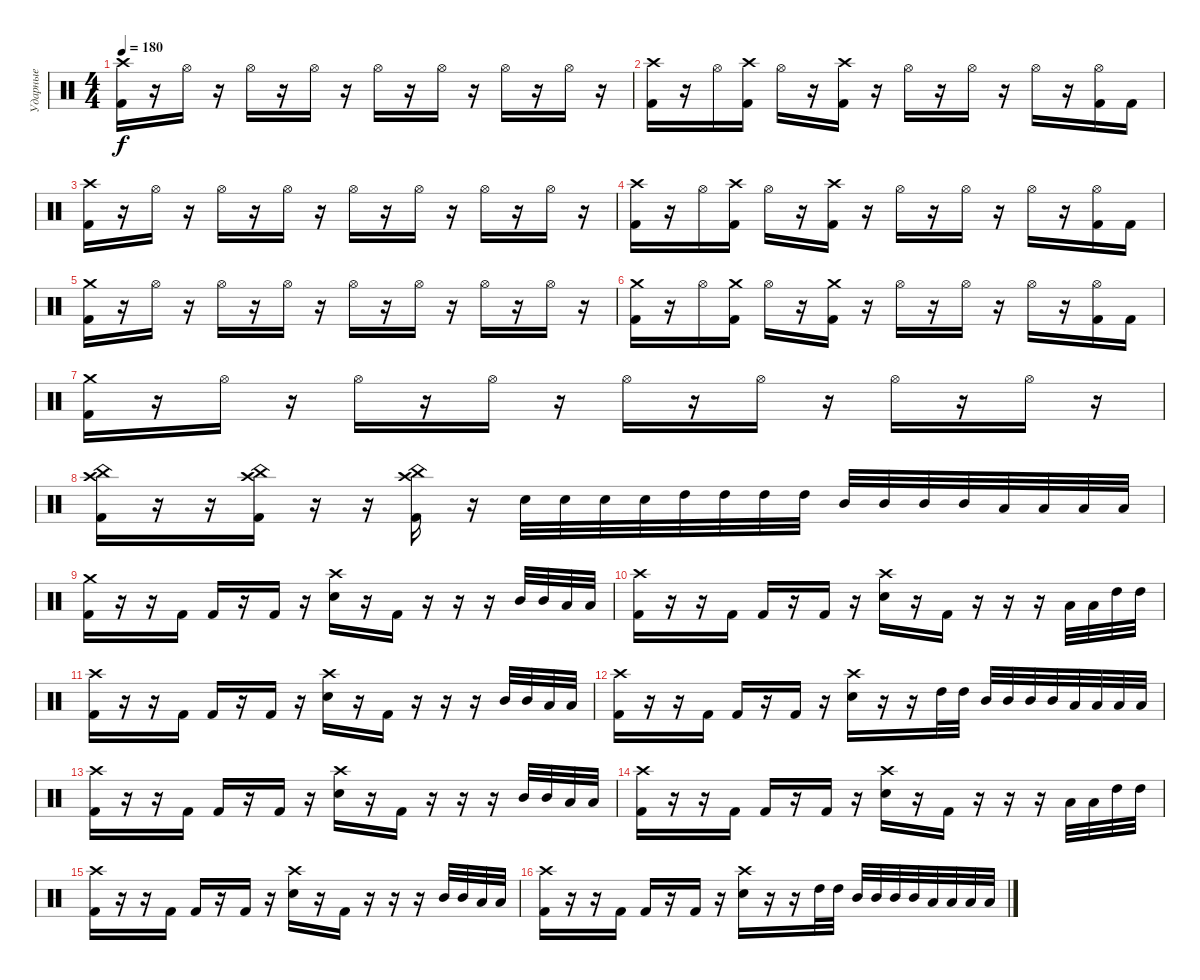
\track ("Ударные" "Ударные") {instrument percussion}
\staff {score}
\articulation defaults
\ts (4 4)
\tempo 180
\clef neutral
\ks c
("Crash high (hit)" "Kick (hit) 2").16{dy f} r.16 "Hi-Hat (open)".16 r.16 "Hi-Hat (open)".16 r.16 "Hi-Hat (open)".16 r.16 "Hi-Hat (open)".16 r.16 "Hi-Hat (open)".16 r.16 "Hi-Hat (open)".16 r.16 "Hi-Hat (open)".16 r.16 |
("Crash high (hit)" "Kick (hit) 2").16 r.16 "Hi-Hat (open)".16 ("Crash high (hit)" "Kick (hit) 2").16 "Hi-Hat (open)".16 r.16 ("Crash high (hit)" "Kick (hit) 2").16 r.16 "Hi-Hat (open)".16 r.16 "Hi-Hat (open)".16 r.16 "Hi-Hat (open)".16 r.16 ("Hi-Hat (open)" "Kick (hit) 2").16 "Kick (hit) 2".16 |
("Crash high (hit)" "Kick (hit) 2").16 r.16 "Hi-Hat (open)".16 r.16 "Hi-Hat (open)".16 r.16 "Hi-Hat (open)".16 r.16 "Hi-Hat (open)".16 r.16 "Hi-Hat (open)".16 r.16 "Hi-Hat (open)".16 r.16 "Hi-Hat (open)".16 r.16 |
("Crash high (hit)" "Kick (hit) 2").16 r.16 "Hi-Hat (open)".16 ("Crash high (hit)" "Kick (hit) 2").16 "Hi-Hat (open)".16 r.16 ("Crash high (hit)" "Kick (hit) 2").16 r.16 "Hi-Hat (open)".16 r.16 "Hi-Hat (open)".16 r.16 "Hi-Hat (open)".16 r.16 ("Hi-Hat (open)" "Kick (hit) 2").16 "Kick (hit) 2".16 |
("Crash medium (hit)" "Kick (hit) 2").16 r.16 "Hi-Hat (open)".16 r.16 "Hi-Hat (open)".16 r.16 "Hi-Hat (open)".16 r.16 "Hi-Hat (open)".16 r.16 "Hi-Hat (open)".16 r.16 "Hi-Hat (open)".16 r.16 "Hi-Hat (open)".16 r.16 |
("Crash medium (hit)" "Kick (hit) 2").16 r.16 "Hi-Hat (open)".16 ("Crash medium (hit)" "Kick (hit) 2").16 "Hi-Hat (open)".16 r.16 ("Crash medium (hit)" "Kick (hit) 2").16 r.16 "Hi-Hat (open)".16 r.16 "Hi-Hat (open)".16 r.16 "Hi-Hat (open)".16 r.16 ("Hi-Hat (open)" "Kick (hit) 2").16 "Kick (hit) 2".16 |
("Crash medium (hit)" "Kick (hit) 2").16 r.16 "Hi-Hat (open)".16 r.16 "Hi-Hat (open)".16 r.16 "Hi-Hat (open)".16 r.16 "Hi-Hat (open)".16 r.16 "Hi-Hat (open)".16 r.16 "Hi-Hat (open)".16 r.16 "Hi-Hat (open)".16 r.16 |
("China (hit)" "Crash high (hit)" "Kick (hit) 2").16 r.16 r.16 ("China (hit)" "Crash high (hit)" "Kick (hit) 2").16 r.16 r.16 ("China (hit)" "Crash high (hit)" "Kick (hit) 2").16 r.16 "Electric Snare (hit)".32 "Electric Snare (hit)".32 "Electric Snare (hit)".32 "Electric Snare (hit)".32 "High Tom (hit)".32 "High Tom (hit)".32 "High Tom (hit)".32 "High Tom (hit)".32 "Mid Tom (hit)".32 "Mid Tom (hit)".32 "Mid Tom (hit)".32 "Mid Tom (hit)".32 "Low Tom (hit)".32 "Low Tom (hit)".32 "Low Tom (hit)".32 "Low Tom (hit)".32 |
("Crash medium (hit)" "Kick (hit) 2").16 r.16 r.16 "Kick (hit) 2".16 "Kick (hit) 2".16 r.16 "Kick (hit) 2".16 r.16 ("Crash high (hit)" "Electric Snare (hit)").16 r.16 "Kick (hit) 2".16 r.16 r.16 r.16 "Mid Tom (hit)".32 "Mid Tom (hit)".32 "Low Tom (hit)".32 "Low Tom (hit)".32 |
("Crash high (hit)" "Kick (hit) 2").16 r.16 r.16 "Kick (hit) 2".16 "Kick (hit) 2".16 r.16 "Kick (hit) 2".16 r.16 ("Crash high (hit)" "Electric Snare (hit)").16 r.16 "Kick (hit) 2".16 r.16 r.16 r.16 "Low Tom (hit)".32 "Low Tom (hit)".32 "High Tom (hit)".32 "High Tom (hit)".32 |
("Crash high (hit)" "Kick (hit) 2").16 r.16 r.16 "Kick (hit) 2".16 "Kick (hit) 2".16 r.16 "Kick (hit) 2".16 r.16 ("Crash high (hit)" "Electric Snare (hit)").16 r.16 "Kick (hit) 2".16 r.16 r.16 r.16 "Mid Tom (hit)".32 "Mid Tom (hit)".32 "Low Tom (hit)".32 "Low Tom (hit)".32 |
("Crash high (hit)" "Kick (hit) 2").16 r.16 r.16 "Kick (hit) 2".16 "Kick (hit) 2".16 r.16 "Kick (hit) 2".16 r.16 ("Crash high (hit)" "Electric Snare (hit)").16 r.16 r.16 "High Tom (hit)".32 "High Tom (hit)".32 "Mid Tom (hit)".32 "Mid Tom (hit)".32 "Mid Tom (hit)".32 "Mid Tom (hit)".32 "Low Tom (hit)".32 "Low Tom (hit)".32 "Low Tom (hit)".32 "Low Tom (hit)".32 |
("Crash high (hit)" "Kick (hit) 2").16 r.16 r.16 "Kick (hit) 2".16 "Kick (hit) 2".16 r.16 "Kick (hit) 2".16 r.16 ("Crash high (hit)" "Electric Snare (hit)").16 r.16 "Kick (hit) 2".16 r.16 r.16 r.16 "Mid Tom (hit)".32 "Mid Tom (hit)".32 "Low Tom (hit)".32 "Low Tom (hit)".32 |
("Crash high (hit)" "Kick (hit) 2").16 r.16 r.16 "Kick (hit) 2".16 "Kick (hit) 2".16 r.16 "Kick (hit) 2".16 r.16 ("Crash high (hit)" "Electric Snare (hit)").16 r.16 "Kick (hit) 2".16 r.16 r.16 r.16 "Low Tom (hit)".32 "Low Tom (hit)".32 "High Tom (hit)".32 "High Tom (hit)".32 |
("Crash high (hit)" "Kick (hit) 2").16 r.16 r.16 "Kick (hit) 2".16 "Kick (hit) 2".16 r.16 "Kick (hit) 2".16 r.16 ("Crash high (hit)" "Electric Snare (hit)").16 r.16 "Kick (hit) 2".16 r.16 r.16 r.16 "Mid Tom (hit)".32 "Mid Tom (hit)".32 "Low Tom (hit)".32 "Low Tom (hit)".32 |
("Crash high (hit)" "Kick (hit) 2").16 r.16 r.16 "Kick (hit) 2".16 "Kick (hit) 2".16 r.16 "Kick (hit) 2".16 r.16 ("Crash high (hit)" "Electric Snare (hit)").16 r.16 r.16 "High Tom (hit)".32 "High Tom (hit)".32 "Mid Tom (hit)".32 "Mid Tom (hit)".32 "Mid Tom (hit)".32 "Mid Tom (hit)".32 "Low Tom (hit)".32 "Low Tom (hit)".32 "Low Tom (hit)".32 "Low Tom (hit)".32
